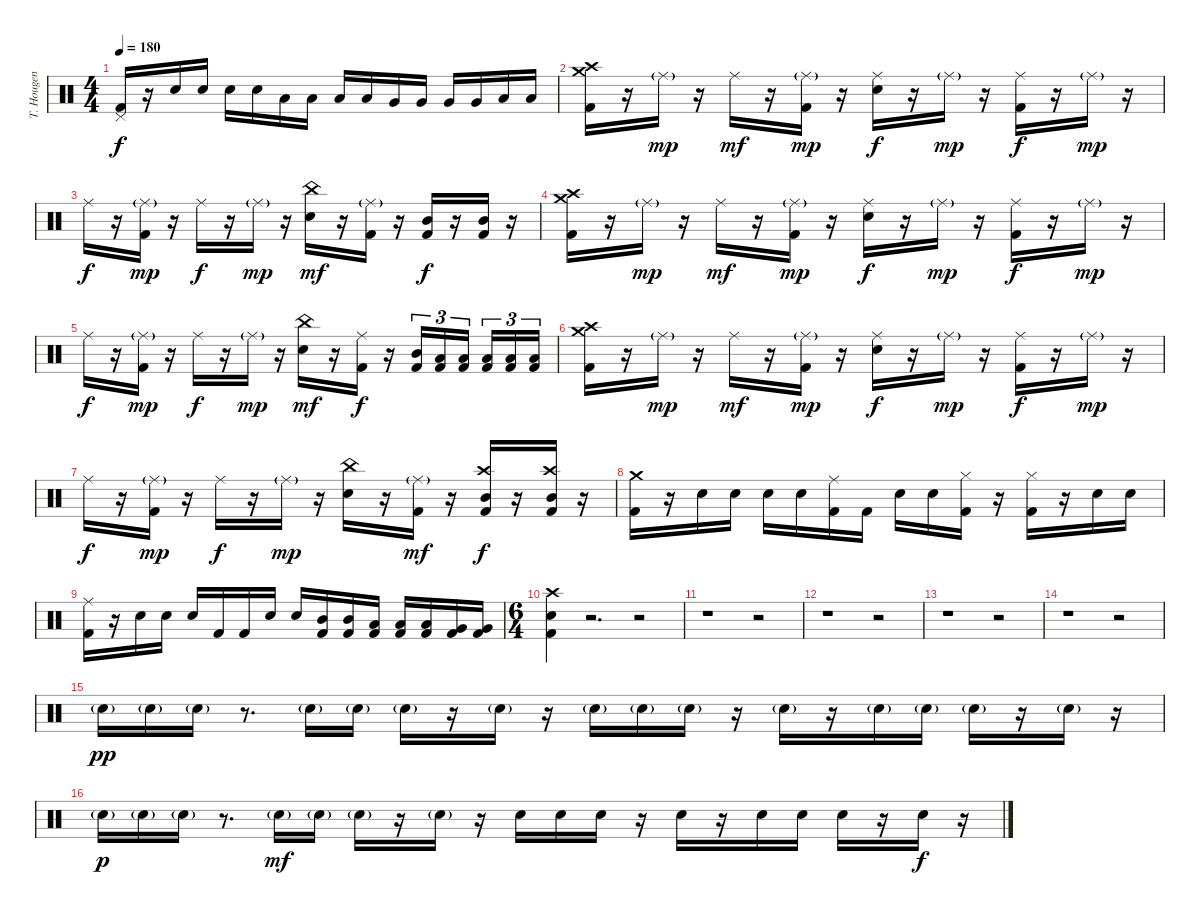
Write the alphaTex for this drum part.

\track ("T. Hougen - Drums" "T. Hougen ") {instrument percussion}
\staff {score}
\articulation defaults
\ts (4 4)
\tempo 180
\clef neutral
\ks c
("Pedal Hi-Hat (hit)" "Kick (hit) 2").16{dy f} r.16 "Electric Snare (hit)".16 "Electric Snare (hit)".16 "Electric Snare (hit)".16 "Electric Snare (hit)".16 "Low Tom (hit)".16 "Low Tom (hit)".16 "Low Tom (hit)".16 "Low Tom (hit)".16 "Very Low Tom (hit)".16 "Very Low Tom (hit)".16 "Very Low Tom (hit)".16 "Very Low Tom (hit)".16 "Low Floor Tom (hit)".16 "Low Floor Tom (hit)".16 |
("Crash medium (hit)" "Crash high (hit)" "Kick (hit) 2").16 r.16 "Ride (middle)"{g}.16{dy mp} r.16 "Ride (middle)".16{dy mf} r.16 ("Ride (middle)"{g} "Kick (hit) 2").16{dy mp} r.16 ("Ride (middle)" "Electric Snare (hit)").16{dy f} r.16 "Ride (middle)"{g}.16{dy mp} r.16 ("Ride (middle)" "Kick (hit) 2").16{dy f} r.16 "Ride (middle)"{g}.16{dy mp} r.16 |
"Ride (middle)".16{dy f} r.16 ("Ride (middle)"{g} "Kick (hit) 2").16{dy mp} r.16 "Ride (middle)".16{dy f} r.16 "Ride (middle)"{g}.16{dy mp} r.16 ("China (hit)" "Electric Snare (hit)").16{dy mf} r.16 ("Ride (middle)"{g} "Kick (hit) 2").16 r.16 ("Mid Tom (hit)" "Kick (hit) 2").16{dy f} r.16 ("Mid Tom (hit)" "Kick (hit) 2").16 r.16 |
("Crash medium (hit)" "Crash high (hit)" "Kick (hit) 2").16 r.16 "Ride (middle)"{g}.16{dy mp} r.16 "Ride (middle)".16{dy mf} r.16 ("Ride (middle)"{g} "Kick (hit) 2").16{dy mp} r.16 ("Ride (middle)" "Electric Snare (hit)").16{dy f} r.16 "Ride (middle)"{g}.16{dy mp} r.16 ("Ride (middle)" "Kick (hit) 2").16{dy f} r.16 "Ride (middle)"{g}.16{dy mp} r.16 |
"Ride (middle)".16{dy f} r.16 ("Ride (middle)"{g} "Kick (hit) 2").16{dy mp} r.16 "Ride (middle)".16{dy f} r.16 "Ride (middle)"{g}.16{dy mp} r.16 ("China (hit)" "Electric Snare (hit)").16{dy mf} r.16 ("Ride (middle)" "Kick (hit) 2").16{dy f} r.16 ("Mid Tom (hit)" "Kick (hit) 2").16{tu (3 2)} ("Low Tom (hit)" "Kick (hit) 2").16{tu (3 2)} ("Low Tom (hit)" "Kick (hit) 2").16{tu (3 2)} ("Low Tom (hit)" "Kick (hit) 2").16{tu (3 2)} ("Low Tom (hit)" "Kick (hit) 2").16{tu (3 2)} ("Low Tom (hit)" "Kick (hit) 2").16{tu (3 2)} |
("Crash medium (hit)" "Crash high (hit)" "Kick (hit) 2").16 r.16 "Ride (middle)"{g}.16{dy mp} r.16 "Ride (middle)".16{dy mf} r.16 ("Ride (middle)"{g} "Kick (hit) 2").16{dy mp} r.16 ("Ride (middle)" "Electric Snare (hit)").16{dy f} r.16 "Ride (middle)"{g}.16{dy mp} r.16 ("Ride (middle)" "Kick (hit) 2").16{dy f} r.16 "Ride (middle)"{g}.16{dy mp} r.16 |
"Ride (middle)".16{dy f} r.16 ("Ride (middle)"{g} "Kick (hit) 2").16{dy mp} r.16 "Ride (middle)".16{dy f} r.16 "Ride (middle)"{g}.16{dy mp} r.16 ("China (hit)" "Electric Snare (hit)").16 r.16 ("Ride (middle)"{g} "Kick (hit) 2").16{dy mf} r.16 ("Crash high (hit)" "Mid Tom (hit)" "Kick (hit) 2").16{dy f} r.16 ("Crash high (hit)" "Mid Tom (hit)" "Kick (hit) 2").16 r.16 |
("Crash medium (hit)" "Kick (hit) 2").16 r.16 "Electric Snare (hit)".16 "Electric Snare (hit)".16 "Electric Snare (hit)".16 "Electric Snare (hit)".16 ("Ride (middle)" "Kick (hit) 2").16 "Kick (hit) 2".16 "Electric Snare (hit)".16 "Electric Snare (hit)".16 ("Hi-Hat (closed)" "Kick (hit) 2").16 r.16 ("Hi-Hat (closed)" "Kick (hit) 2").16 r.16 "Electric Snare (hit)".16 "Electric Snare (hit)".16 |
("Ride (middle)" "Kick (hit) 2").16 r.16 "Electric Snare (hit)".16 "Electric Snare (hit)".16 "Electric Snare (hit)".16 "Kick (hit) 2".16 "Kick (hit) 2".16 "Electric Snare (hit)".16 "Electric Snare (hit)".16 ("Mid Tom (hit)" "Kick (hit) 2").16 ("Mid Tom (hit)" "Kick (hit) 2").16 ("Low Tom (hit)" "Kick (hit) 2").16 ("Low Tom (hit)" "Kick (hit) 2").16 ("Low Tom (hit)" "Kick (hit) 2").16 ("Very Low Tom (hit)" "Kick (hit) 2").16 ("Very Low Tom (hit)" "Kick (hit) 2").16 |
\ts (6 4)
("Crash high (hit)" "Electric Snare (hit)" "Kick (hit) 2").4 r.2{d} r.2 |
r.1 r.2 |
r.1 r.2 |
r.1 r.2 |
r.1 r.2 |
"Electric Snare (hit)"{g}.16{dy pp} "Electric Snare (hit)"{g}.16 "Electric Snare (hit)"{g}.16 r.8{d} "Electric Snare (hit)"{g}.16 "Electric Snare (hit)"{g}.16 "Electric Snare (hit)"{g}.16 r.16 "Electric Snare (hit)"{g}.16 r.16 "Electric Snare (hit)"{g}.16 "Electric Snare (hit)"{g}.16 "Electric Snare (hit)"{g}.16 r.16 "Electric Snare (hit)"{g}.16 r.16 "Electric Snare (hit)"{g}.16 "Electric Snare (hit)"{g}.16 "Electric Snare (hit)"{g}.16 r.16 "Electric Snare (hit)"{g}.16 r.16 |
"Electric Snare (hit)"{g}.16{dy p} "Electric Snare (hit)"{g}.16 "Electric Snare (hit)"{g}.16 r.8{d} "Electric Snare (hit)"{g}.16{dy mf} "Electric Snare (hit)"{g}.16 "Electric Snare (hit)"{g}.16 r.16 "Electric Snare (hit)"{g}.16 r.16 "Electric Snare (hit)".16 "Electric Snare (hit)".16 "Electric Snare (hit)".16 r.16 "Electric Snare (hit)".16 r.16 "Electric Snare (hit)".16 "Electric Snare (hit)".16 "Electric Snare (hit)".16 r.16 "Electric Snare (hit)".16{dy f} r.16
